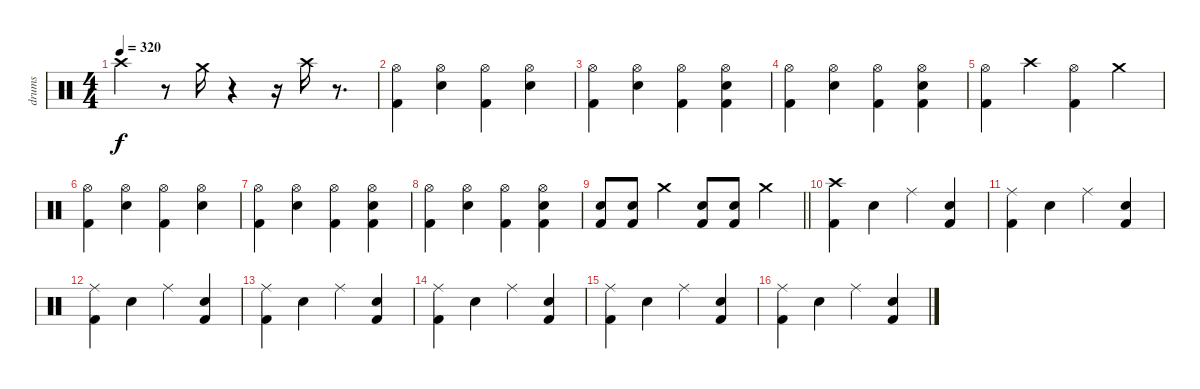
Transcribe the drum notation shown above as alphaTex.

\track ("drums" "drums") {instrument percussion}
\staff {score}
\articulation defaults
\ts (4 4)
\tempo 320
\clef neutral
\ks c "Crash high (hit)".4{dy f}
r.8 "Crash medium (hit)".16 r.4 r.16 "Crash high (hit)".16 r.8{d} |
("Hi-Hat (open)" "Kick (hit) 2").4 ("Hi-Hat (open)" "Snare (hit) 2").4 ("Hi-Hat (open)" "Kick (hit) 2").4 ("Hi-Hat (open)" "Snare (hit) 2").4 |
("Hi-Hat (open)" "Kick (hit) 2").4 ("Hi-Hat (open)" "Snare (hit) 2").4 ("Hi-Hat (open)" "Kick (hit) 2").4 ("Hi-Hat (open)" "Snare (hit) 2" "Kick (hit) 2").4 |
("Hi-Hat (open)" "Kick (hit) 2").4 ("Hi-Hat (open)" "Snare (hit) 2").4 ("Hi-Hat (open)" "Kick (hit) 2").4 ("Hi-Hat (open)" "Snare (hit) 2" "Kick (hit) 2").4 |
("Hi-Hat (open)" "Kick (hit) 2").4 "Crash high (hit)".4 ("Hi-Hat (open)" "Kick (hit) 2").4 "Crash medium (hit)".4 |
("Hi-Hat (open)" "Kick (hit) 2").4 ("Hi-Hat (open)" "Snare (hit) 2").4 ("Hi-Hat (open)" "Kick (hit) 2").4 ("Hi-Hat (open)" "Snare (hit) 2").4 |
("Hi-Hat (open)" "Kick (hit) 2").4 ("Hi-Hat (open)" "Snare (hit) 2").4 ("Hi-Hat (open)" "Kick (hit) 2").4 ("Hi-Hat (open)" "Snare (hit) 2" "Kick (hit) 2").4 |
("Hi-Hat (open)" "Kick (hit) 2").4 ("Hi-Hat (open)" "Snare (hit) 2").4 ("Hi-Hat (open)" "Kick (hit) 2").4 ("Hi-Hat (open)" "Snare (hit) 2" "Kick (hit) 2").4 |
\barLineRight lightlight
("Snare (hit) 2" "Kick (hit) 2").8 ("Snare (hit) 2" "Kick (hit) 2").8 "Crash medium (hit)".4 ("Snare (hit) 2" "Kick (hit) 2").8 ("Snare (hit) 2" "Kick (hit) 2").8 "Crash medium (hit)".4 |
("Crash high (hit)" "Kick (hit) 2").4 "Snare (hit) 2".4 "Ride (middle)".4 ("Snare (hit) 2" "Kick (hit) 2").4 |
("Ride (middle)" "Kick (hit) 2").4 "Snare (hit) 2".4 "Ride (middle)".4 ("Snare (hit) 2" "Kick (hit) 2").4 |
("Ride (middle)" "Kick (hit) 2").4 "Snare (hit) 2".4 "Ride (middle)".4 ("Snare (hit) 2" "Kick (hit) 2").4 |
("Ride (middle)" "Kick (hit) 2").4 "Snare (hit) 2".4 "Ride (middle)".4 ("Snare (hit) 2" "Kick (hit) 2").4 |
("Ride (middle)" "Kick (hit) 2").4 "Snare (hit) 2".4 "Ride (middle)".4 ("Snare (hit) 2" "Kick (hit) 2").4 |
("Ride (middle)" "Kick (hit) 2").4 "Snare (hit) 2".4 "Ride (middle)".4 ("Snare (hit) 2" "Kick (hit) 2").4 |
("Ride (middle)" "Kick (hit) 2").4 "Snare (hit) 2".4 "Ride (middle)".4 ("Snare (hit) 2" "Kick (hit) 2").4
